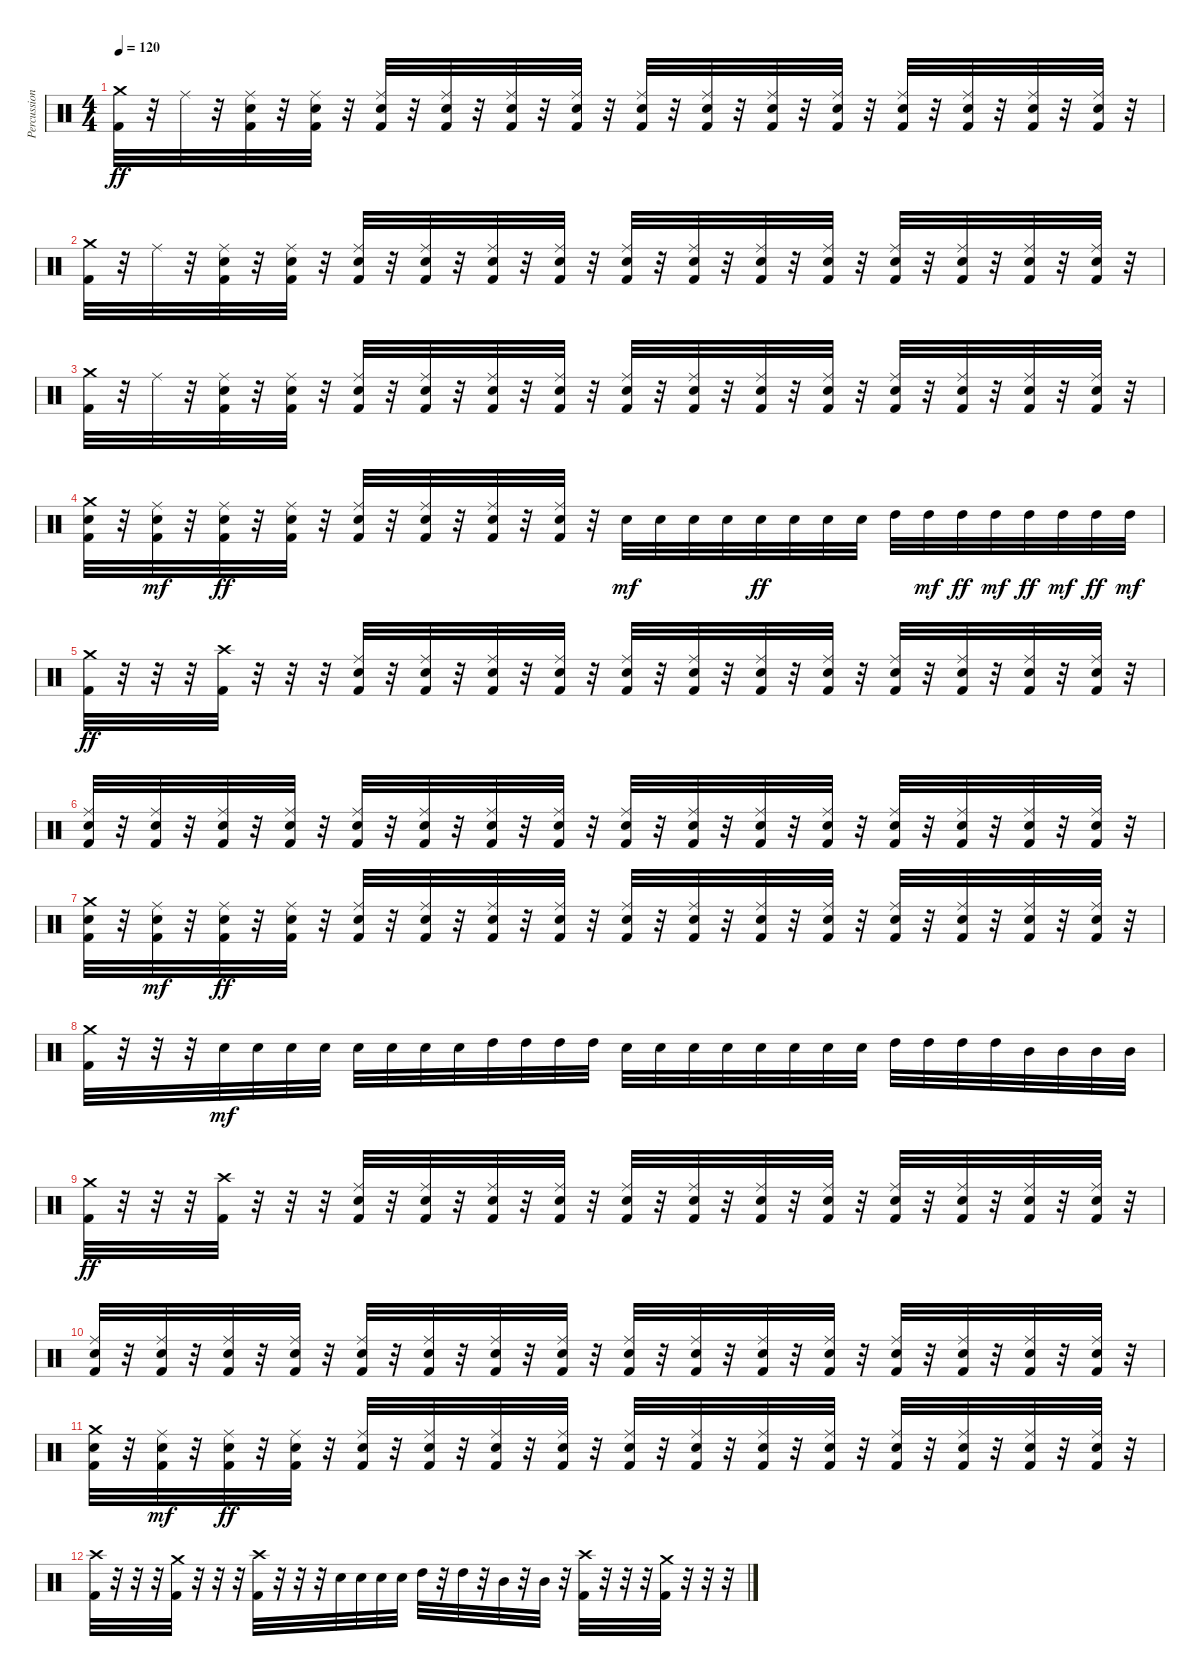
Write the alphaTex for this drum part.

\track ("Percussion" "Percussion") {instrument percussion}
\staff {score}
\articulation defaults
\ts (4 4)
\tempo 120
\clef neutral
\ks c
("Crash medium (hit)" "Kick (hit) 2").32{dy ff} r.32 "Ride (middle)".32 r.32 ("Ride (middle)" "Snare (hit) 2" "Kick (hit) 2").32 r.32 ("Ride (middle)" "Snare (hit) 2" "Kick (hit) 2").32 r.32 ("Ride (middle)" "Snare (hit) 2" "Kick (hit) 2").32 r.32 ("Ride (middle)" "Snare (hit) 2" "Kick (hit) 2").32 r.32 ("Ride (middle)" "Snare (hit) 2" "Kick (hit) 2").32 r.32 ("Ride (middle)" "Snare (hit) 2" "Kick (hit) 2").32 r.32 ("Ride (middle)" "Snare (hit) 2" "Kick (hit) 2").32 r.32 ("Ride (middle)" "Snare (hit) 2" "Kick (hit) 2").32 r.32 ("Ride (middle)" "Snare (hit) 2" "Kick (hit) 2").32 r.32 ("Ride (middle)" "Snare (hit) 2" "Kick (hit) 2").32 r.32 ("Ride (middle)" "Snare (hit) 2" "Kick (hit) 2").32 r.32 ("Ride (middle)" "Snare (hit) 2" "Kick (hit) 2").32 r.32 ("Ride (middle)" "Snare (hit) 2" "Kick (hit) 2").32 r.32 ("Ride (middle)" "Snare (hit) 2" "Kick (hit) 2").32 r.32 |
("Crash medium (hit)" "Kick (hit) 2").32 r.32 "Ride (middle)".32 r.32 ("Ride (middle)" "Snare (hit) 2" "Kick (hit) 2").32 r.32 ("Ride (middle)" "Snare (hit) 2" "Kick (hit) 2").32 r.32 ("Ride (middle)" "Snare (hit) 2" "Kick (hit) 2").32 r.32 ("Ride (middle)" "Snare (hit) 2" "Kick (hit) 2").32 r.32 ("Ride (middle)" "Snare (hit) 2" "Kick (hit) 2").32 r.32 ("Ride (middle)" "Snare (hit) 2" "Kick (hit) 2").32 r.32 ("Ride (middle)" "Snare (hit) 2" "Kick (hit) 2").32 r.32 ("Ride (middle)" "Snare (hit) 2" "Kick (hit) 2").32 r.32 ("Ride (middle)" "Snare (hit) 2" "Kick (hit) 2").32 r.32 ("Ride (middle)" "Snare (hit) 2" "Kick (hit) 2").32 r.32 ("Ride (middle)" "Snare (hit) 2" "Kick (hit) 2").32 r.32 ("Ride (middle)" "Snare (hit) 2" "Kick (hit) 2").32 r.32 ("Ride (middle)" "Snare (hit) 2" "Kick (hit) 2").32 r.32 ("Ride (middle)" "Snare (hit) 2" "Kick (hit) 2").32 r.32 |
("Crash medium (hit)" "Kick (hit) 2").32 r.32 "Ride (middle)".32 r.32 ("Ride (middle)" "Snare (hit) 2" "Kick (hit) 2").32 r.32 ("Ride (middle)" "Snare (hit) 2" "Kick (hit) 2").32 r.32 ("Ride (middle)" "Snare (hit) 2" "Kick (hit) 2").32 r.32 ("Ride (middle)" "Snare (hit) 2" "Kick (hit) 2").32 r.32 ("Ride (middle)" "Snare (hit) 2" "Kick (hit) 2").32 r.32 ("Ride (middle)" "Snare (hit) 2" "Kick (hit) 2").32 r.32 ("Ride (middle)" "Snare (hit) 2" "Kick (hit) 2").32 r.32 ("Ride (middle)" "Snare (hit) 2" "Kick (hit) 2").32 r.32 ("Ride (middle)" "Snare (hit) 2" "Kick (hit) 2").32 r.32 ("Ride (middle)" "Snare (hit) 2" "Kick (hit) 2").32 r.32 ("Ride (middle)" "Snare (hit) 2" "Kick (hit) 2").32 r.32 ("Ride (middle)" "Snare (hit) 2" "Kick (hit) 2").32 r.32 ("Ride (middle)" "Snare (hit) 2" "Kick (hit) 2").32 r.32 ("Ride (middle)" "Snare (hit) 2" "Kick (hit) 2").32 r.32 |
("Crash medium (hit)" "Snare (hit) 2" "Kick (hit) 2").32 r.32 ("Ride (middle)" "Snare (hit) 2" "Kick (hit) 2").32{dy mf} r.32 ("Ride (middle)" "Snare (hit) 2" "Kick (hit) 2").32{dy ff} r.32 ("Ride (middle)" "Snare (hit) 2" "Kick (hit) 2").32 r.32 ("Ride (middle)" "Snare (hit) 2" "Kick (hit) 2").32 r.32 ("Ride (middle)" "Snare (hit) 2" "Kick (hit) 2").32 r.32 ("Ride (middle)" "Snare (hit) 2" "Kick (hit) 2").32 r.32 ("Ride (middle)" "Snare (hit) 2" "Kick (hit) 2").32 r.32 "Snare (hit) 2".32{dy mf} "Snare (hit) 2".32 "Snare (hit) 2".32 "Snare (hit) 2".32 "Snare (hit) 2".32{dy ff} "Snare (hit) 2".32 "Snare (hit) 2".32 "Snare (hit) 2".32 "High Tom (hit)".32 "High Tom (hit)".32{dy mf} "High Tom (hit)".32{dy ff} "High Tom (hit)".32{dy mf} "High Tom (hit)".32{dy ff} "High Tom (hit)".32{dy mf} "High Tom (hit)".32{dy ff} "High Tom (hit)".32{dy mf} |
("Crash medium (hit)" "Kick (hit) 2").32{dy ff} r.32 r.32 r.32 ("Crash high (hit)" "Kick (hit) 2").32 r.32 r.32 r.32 ("Ride (middle)" "Snare (hit) 2" "Kick (hit) 2").32 r.32 ("Ride (middle)" "Snare (hit) 2" "Kick (hit) 2").32 r.32 ("Ride (middle)" "Snare (hit) 2" "Kick (hit) 2").32 r.32 ("Ride (middle)" "Snare (hit) 2" "Kick (hit) 2").32 r.32 ("Ride (middle)" "Snare (hit) 2" "Kick (hit) 2").32 r.32 ("Ride (middle)" "Snare (hit) 2" "Kick (hit) 2").32 r.32 ("Ride (middle)" "Snare (hit) 2" "Kick (hit) 2").32 r.32 ("Ride (middle)" "Snare (hit) 2" "Kick (hit) 2").32 r.32 ("Ride (middle)" "Snare (hit) 2" "Kick (hit) 2").32 r.32 ("Ride (middle)" "Snare (hit) 2" "Kick (hit) 2").32 r.32 ("Ride (middle)" "Snare (hit) 2" "Kick (hit) 2").32 r.32 ("Ride (middle)" "Snare (hit) 2" "Kick (hit) 2").32 r.32 |
("Ride (middle)" "Snare (hit) 2" "Kick (hit) 2").32 r.32 ("Ride (middle)" "Snare (hit) 2" "Kick (hit) 2").32 r.32 ("Ride (middle)" "Snare (hit) 2" "Kick (hit) 2").32 r.32 ("Ride (middle)" "Snare (hit) 2" "Kick (hit) 2").32 r.32 ("Ride (middle)" "Snare (hit) 2" "Kick (hit) 2").32 r.32 ("Ride (middle)" "Snare (hit) 2" "Kick (hit) 2").32 r.32 ("Ride (middle)" "Snare (hit) 2" "Kick (hit) 2").32 r.32 ("Ride (middle)" "Snare (hit) 2" "Kick (hit) 2").32 r.32 ("Ride (middle)" "Snare (hit) 2" "Kick (hit) 2").32 r.32 ("Ride (middle)" "Snare (hit) 2" "Kick (hit) 2").32 r.32 ("Ride (middle)" "Snare (hit) 2" "Kick (hit) 2").32 r.32 ("Ride (middle)" "Snare (hit) 2" "Kick (hit) 2").32 r.32 ("Ride (middle)" "Snare (hit) 2" "Kick (hit) 2").32 r.32 ("Ride (middle)" "Snare (hit) 2" "Kick (hit) 2").32 r.32 ("Ride (middle)" "Snare (hit) 2" "Kick (hit) 2").32 r.32 ("Ride (middle)" "Snare (hit) 2" "Kick (hit) 2").32 r.32 |
("Crash medium (hit)" "Snare (hit) 2" "Kick (hit) 2").32 r.32 ("Ride (middle)" "Snare (hit) 2" "Kick (hit) 2").32{dy mf} r.32 ("Ride (middle)" "Snare (hit) 2" "Kick (hit) 2").32{dy ff} r.32 ("Ride (middle)" "Snare (hit) 2" "Kick (hit) 2").32 r.32 ("Ride (middle)" "Snare (hit) 2" "Kick (hit) 2").32 r.32 ("Ride (middle)" "Snare (hit) 2" "Kick (hit) 2").32 r.32 ("Ride (middle)" "Snare (hit) 2" "Kick (hit) 2").32 r.32 ("Ride (middle)" "Snare (hit) 2" "Kick (hit) 2").32 r.32 ("Ride (middle)" "Snare (hit) 2" "Kick (hit) 2").32 r.32 ("Ride (middle)" "Snare (hit) 2" "Kick (hit) 2").32 r.32 ("Ride (middle)" "Snare (hit) 2" "Kick (hit) 2").32 r.32 ("Ride (middle)" "Snare (hit) 2" "Kick (hit) 2").32 r.32 ("Ride (middle)" "Snare (hit) 2" "Kick (hit) 2").32 r.32 ("Ride (middle)" "Snare (hit) 2" "Kick (hit) 2").32 r.32 ("Ride (middle)" "Snare (hit) 2" "Kick (hit) 2").32 r.32 ("Ride (middle)" "Snare (hit) 2" "Kick (hit) 2").32 r.32 |
("Crash medium (hit)" "Kick (hit) 2").32 r.32 r.32 r.32 "Snare (hit) 2".32{dy mf} "Snare (hit) 2".32 "Snare (hit) 2".32 "Snare (hit) 2".32 "Snare (hit) 2".32 "Snare (hit) 2".32 "Snare (hit) 2".32 "Snare (hit) 2".32 "High Tom (hit)".32 "High Tom (hit)".32 "High Tom (hit)".32 "High Tom (hit)".32 "Snare (hit) 2".32 "Snare (hit) 2".32 "Snare (hit) 2".32 "Snare (hit) 2".32 "Snare (hit) 2".32 "Snare (hit) 2".32 "Snare (hit) 2".32 "Snare (hit) 2".32 "High Tom (hit)".32 "High Tom (hit)".32 "High Tom (hit)".32 "High Tom (hit)".32 "Mid Tom (hit)".32 "Mid Tom (hit)".32 "Mid Tom (hit)".32 "Mid Tom (hit)".32 |
("Crash medium (hit)" "Kick (hit) 2").32{dy ff} r.32 r.32 r.32 ("Crash high (hit)" "Kick (hit) 2").32 r.32 r.32 r.32 ("Ride (middle)" "Snare (hit) 2" "Kick (hit) 2").32 r.32 ("Ride (middle)" "Snare (hit) 2" "Kick (hit) 2").32 r.32 ("Ride (middle)" "Snare (hit) 2" "Kick (hit) 2").32 r.32 ("Ride (middle)" "Snare (hit) 2" "Kick (hit) 2").32 r.32 ("Ride (middle)" "Snare (hit) 2" "Kick (hit) 2").32 r.32 ("Ride (middle)" "Snare (hit) 2" "Kick (hit) 2").32 r.32 ("Ride (middle)" "Snare (hit) 2" "Kick (hit) 2").32 r.32 ("Ride (middle)" "Snare (hit) 2" "Kick (hit) 2").32 r.32 ("Ride (middle)" "Snare (hit) 2" "Kick (hit) 2").32 r.32 ("Ride (middle)" "Snare (hit) 2" "Kick (hit) 2").32 r.32 ("Ride (middle)" "Snare (hit) 2" "Kick (hit) 2").32 r.32 ("Ride (middle)" "Snare (hit) 2" "Kick (hit) 2").32 r.32 |
("Ride (middle)" "Snare (hit) 2" "Kick (hit) 2").32 r.32 ("Ride (middle)" "Snare (hit) 2" "Kick (hit) 2").32 r.32 ("Ride (middle)" "Snare (hit) 2" "Kick (hit) 2").32 r.32 ("Ride (middle)" "Snare (hit) 2" "Kick (hit) 2").32 r.32 ("Ride (middle)" "Snare (hit) 2" "Kick (hit) 2").32 r.32 ("Ride (middle)" "Snare (hit) 2" "Kick (hit) 2").32 r.32 ("Ride (middle)" "Snare (hit) 2" "Kick (hit) 2").32 r.32 ("Ride (middle)" "Snare (hit) 2" "Kick (hit) 2").32 r.32 ("Ride (middle)" "Snare (hit) 2" "Kick (hit) 2").32 r.32 ("Ride (middle)" "Snare (hit) 2" "Kick (hit) 2").32 r.32 ("Ride (middle)" "Snare (hit) 2" "Kick (hit) 2").32 r.32 ("Ride (middle)" "Snare (hit) 2" "Kick (hit) 2").32 r.32 ("Ride (middle)" "Snare (hit) 2" "Kick (hit) 2").32 r.32 ("Ride (middle)" "Snare (hit) 2" "Kick (hit) 2").32 r.32 ("Ride (middle)" "Snare (hit) 2" "Kick (hit) 2").32 r.32 ("Ride (middle)" "Snare (hit) 2" "Kick (hit) 2").32 r.32 |
("Crash medium (hit)" "Snare (hit) 2" "Kick (hit) 2").32 r.32 ("Ride (middle)" "Snare (hit) 2" "Kick (hit) 2").32{dy mf} r.32 ("Ride (middle)" "Snare (hit) 2" "Kick (hit) 2").32{dy ff} r.32 ("Ride (middle)" "Snare (hit) 2" "Kick (hit) 2").32 r.32 ("Ride (middle)" "Snare (hit) 2" "Kick (hit) 2").32 r.32 ("Ride (middle)" "Snare (hit) 2" "Kick (hit) 2").32 r.32 ("Ride (middle)" "Snare (hit) 2" "Kick (hit) 2").32 r.32 ("Ride (middle)" "Snare (hit) 2" "Kick (hit) 2").32 r.32 ("Ride (middle)" "Snare (hit) 2" "Kick (hit) 2").32 r.32 ("Ride (middle)" "Snare (hit) 2" "Kick (hit) 2").32 r.32 ("Ride (middle)" "Snare (hit) 2" "Kick (hit) 2").32 r.32 ("Ride (middle)" "Snare (hit) 2" "Kick (hit) 2").32 r.32 ("Ride (middle)" "Snare (hit) 2" "Kick (hit) 2").32 r.32 ("Ride (middle)" "Snare (hit) 2" "Kick (hit) 2").32 r.32 ("Ride (middle)" "Snare (hit) 2" "Kick (hit) 2").32 r.32 ("Ride (middle)" "Snare (hit) 2" "Kick (hit) 2").32 r.32 |
("Crash high (hit)" "Kick (hit) 2").32 r.32 r.32 r.32 ("Crash medium (hit)" "Kick (hit) 2").32 r.32 r.32 r.32 ("Crash high (hit)" "Kick (hit) 2").32 r.32 r.32 r.32 "Snare (hit) 2".32 "Snare (hit) 2".32 "Snare (hit) 2".32 "Snare (hit) 2".32 "High Tom (hit)".32 r.32 "High Tom (hit)".32 r.32 "Mid Tom (hit)".32 r.32 "Mid Tom (hit)".32 r.32 ("Crash high (hit)" "Kick (hit) 2").32 r.32 r.32 r.32 ("Crash medium (hit)" "Kick (hit) 2").32 r.32 r.32 r.32
